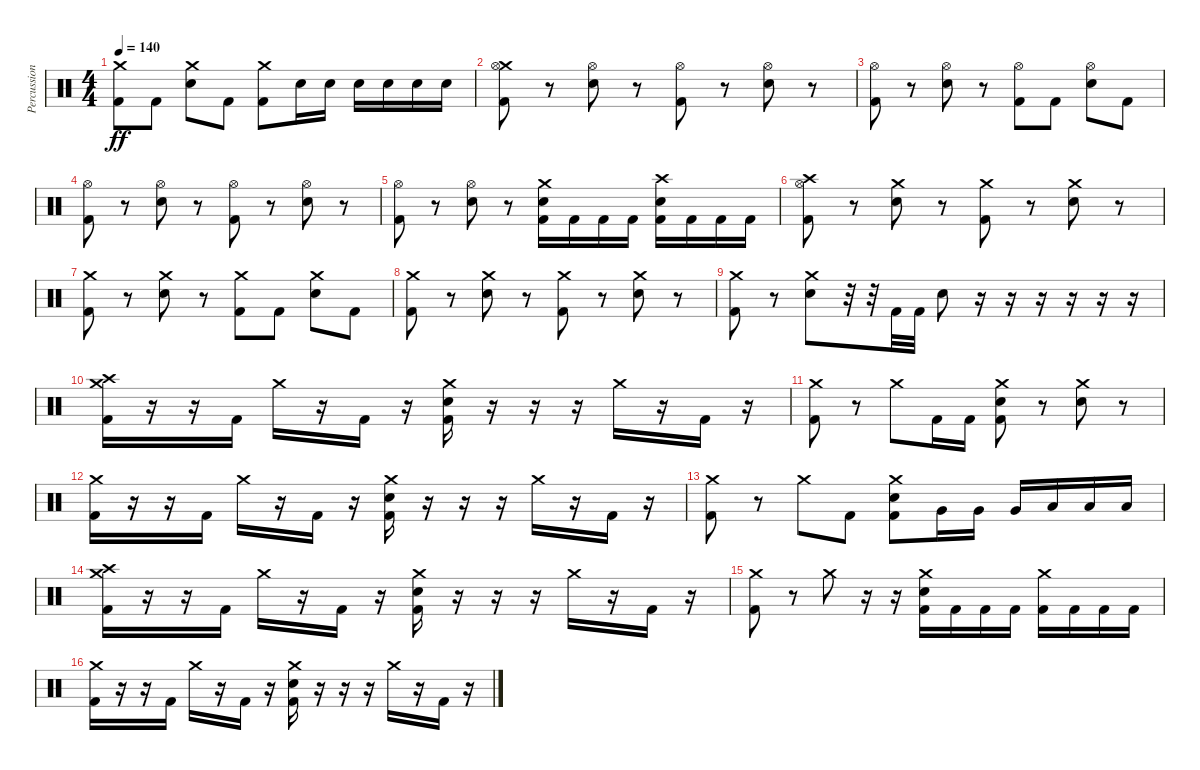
\track ("Percussion" "Percussion") {instrument percussion}
\staff {score}
\articulation defaults
\ts (4 4)
\tempo 140
\clef neutral
\ks c
("Crash medium (hit)" "Kick (hit) 2").8{dy ff} "Kick (hit) 2".8 ("Crash medium (hit)" "Electric Snare (hit)").8 "Kick (hit) 2".8 ("Crash medium (hit)" "Kick (hit) 2").8 "Electric Snare (hit)".16 "Electric Snare (hit)".16 "Electric Snare (hit)".16 "Electric Snare (hit)".16 "Electric Snare (hit)".16 "Electric Snare (hit)".16 |
("Crash medium (hit)" "Hi-Hat (open)" "Kick (hit) 2").8 r.8 ("Hi-Hat (open)" "Electric Snare (hit)").8 r.8 ("Hi-Hat (open)" "Kick (hit) 2").8 r.8 ("Hi-Hat (open)" "Electric Snare (hit)").8 r.8 |
("Hi-Hat (open)" "Kick (hit) 2").8 r.8 ("Hi-Hat (open)" "Electric Snare (hit)").8 r.8 ("Hi-Hat (open)" "Kick (hit) 2").8 "Kick (hit) 2".8 ("Hi-Hat (open)" "Electric Snare (hit)").8 "Kick (hit) 2".8 |
("Hi-Hat (open)" "Kick (hit) 2").8 r.8 ("Hi-Hat (open)" "Electric Snare (hit)").8 r.8 ("Hi-Hat (open)" "Kick (hit) 2").8 r.8 ("Hi-Hat (open)" "Electric Snare (hit)").8 r.8 |
("Hi-Hat (open)" "Kick (hit) 2").8 r.8 ("Hi-Hat (open)" "Electric Snare (hit)").8 r.8 ("Crash medium (hit)" "Electric Snare (hit)" "Kick (hit) 2").16 "Kick (hit) 2".16 "Kick (hit) 2".16 "Kick (hit) 2".16 ("Crash high (hit)" "Electric Snare (hit)" "Kick (hit) 2").16 "Kick (hit) 2".16 "Kick (hit) 2".16 "Kick (hit) 2".16 |
("Crash high (hit)" "Hi-Hat (open)" "Kick (hit) 2").8 r.8 ("Crash medium (hit)" "Electric Snare (hit)").8 r.8 ("Crash medium (hit)" "Kick (hit) 2").8 r.8 ("Crash medium (hit)" "Electric Snare (hit)").8 r.8 |
("Crash medium (hit)" "Kick (hit) 2").8 r.8 ("Crash medium (hit)" "Electric Snare (hit)").8 r.8 ("Crash medium (hit)" "Kick (hit) 2").8 "Kick (hit) 2".8 ("Crash medium (hit)" "Electric Snare (hit)").8 "Kick (hit) 2".8 |
("Crash medium (hit)" "Kick (hit) 2").8 r.8 ("Crash medium (hit)" "Electric Snare (hit)").8 r.8 ("Crash medium (hit)" "Kick (hit) 2").8 r.8 ("Crash medium (hit)" "Electric Snare (hit)").8 r.8 |
("Crash medium (hit)" "Kick (hit) 2").8 r.8 ("Crash medium (hit)" "Electric Snare (hit)").8 r.32 r.32 "Kick (hit) 2".32 "Kick (hit) 2".32 "Electric Snare (hit)".8 r.16 r.16 r.16 r.16 r.16 r.16 |
("Crash medium (hit)" "Crash high (hit)" "Kick (hit) 2").16 r.16 r.16 "Kick (hit) 2".16 "Crash medium (hit)".16 r.16 "Kick (hit) 2".16 r.16 ("Crash medium (hit)" "Electric Snare (hit)" "Kick (hit) 2").16 r.16 r.16 r.16 "Crash medium (hit)".16 r.16 "Kick (hit) 2".16 r.16 |
("Crash medium (hit)" "Kick (hit) 2").8 r.8 "Crash medium (hit)".8 "Kick (hit) 2".16 "Kick (hit) 2".16 ("Crash medium (hit)" "Electric Snare (hit)" "Kick (hit) 2").8 r.8 ("Crash medium (hit)" "Electric Snare (hit)").8 r.8 |
("Crash medium (hit)" "Kick (hit) 2").16 r.16 r.16 "Kick (hit) 2".16 "Crash medium (hit)".16 r.16 "Kick (hit) 2".16 r.16 ("Crash medium (hit)" "Electric Snare (hit)" "Kick (hit) 2").16 r.16 r.16 r.16 "Crash medium (hit)".16 r.16 "Kick (hit) 2".16 r.16 |
("Crash medium (hit)" "Kick (hit) 2").8 r.8 "Crash medium (hit)".8 "Kick (hit) 2".8 ("Crash medium (hit)" "Electric Snare (hit)" "Kick (hit) 2").8 "Very Low Tom (hit)".16 "Very Low Tom (hit)".16 "Very Low Tom (hit)".16 "Low Floor Tom (hit)".16 "Low Floor Tom (hit)".16 "Low Floor Tom (hit)".16 |
("Crash medium (hit)" "Crash high (hit)" "Kick (hit) 2").16 r.16 r.16 "Kick (hit) 2".16 "Crash medium (hit)".16 r.16 "Kick (hit) 2".16 r.16 ("Crash medium (hit)" "Electric Snare (hit)" "Kick (hit) 2").16 r.16 r.16 r.16 "Crash medium (hit)".16 r.16 "Kick (hit) 2".16 r.16 |
("Crash medium (hit)" "Kick (hit) 2").8 r.8 "Crash medium (hit)".8 r.16 r.16 ("Crash medium (hit)" "Electric Snare (hit)" "Kick (hit) 2").16 "Kick (hit) 2".16 "Kick (hit) 2".16 "Kick (hit) 2".16 ("Crash medium (hit)" "Kick (hit) 2").16 "Kick (hit) 2".16 "Kick (hit) 2".16 "Kick (hit) 2".16 |
("Crash medium (hit)" "Kick (hit) 2").16 r.16 r.16 "Kick (hit) 2".16 "Crash medium (hit)".16 r.16 "Kick (hit) 2".16 r.16 ("Crash medium (hit)" "Electric Snare (hit)" "Kick (hit) 2").16 r.16 r.16 r.16 "Crash medium (hit)".16 r.16 "Kick (hit) 2".16 r.16
